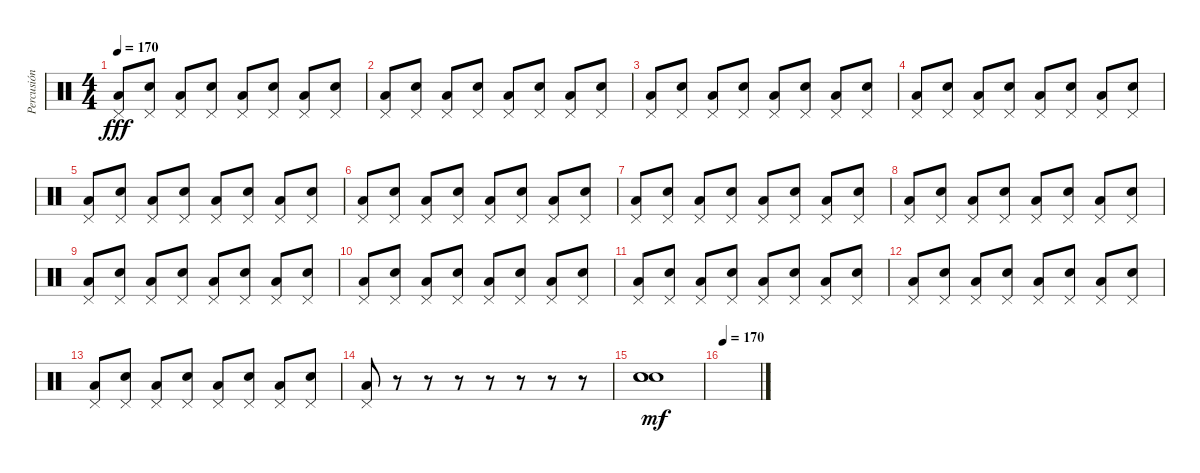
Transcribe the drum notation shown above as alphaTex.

\track ("Percusión" "Percusión") {instrument percussion}
\staff {score}
\articulation defaults
\ts (4 4)
\tempo 170
\clef neutral
\ks c
("Pedal Hi-Hat (hit)" "Low Tom (hit)").8{dy fff} ("Pedal Hi-Hat (hit)" "Electric Snare (hit)").8 ("Pedal Hi-Hat (hit)" "Low Tom (hit)").8 ("Pedal Hi-Hat (hit)" "Electric Snare (hit)").8 ("Pedal Hi-Hat (hit)" "Low Tom (hit)").8 ("Pedal Hi-Hat (hit)" "Electric Snare (hit)").8 ("Pedal Hi-Hat (hit)" "Low Tom (hit)").8 ("Pedal Hi-Hat (hit)" "Electric Snare (hit)").8 |
("Pedal Hi-Hat (hit)" "Low Tom (hit)").8 ("Pedal Hi-Hat (hit)" "Electric Snare (hit)").8 ("Pedal Hi-Hat (hit)" "Low Tom (hit)").8 ("Pedal Hi-Hat (hit)" "Electric Snare (hit)").8 ("Pedal Hi-Hat (hit)" "Low Tom (hit)").8 ("Pedal Hi-Hat (hit)" "Electric Snare (hit)").8 ("Pedal Hi-Hat (hit)" "Low Tom (hit)").8 ("Pedal Hi-Hat (hit)" "Electric Snare (hit)").8 |
("Pedal Hi-Hat (hit)" "Low Tom (hit)").8 ("Pedal Hi-Hat (hit)" "Electric Snare (hit)").8 ("Pedal Hi-Hat (hit)" "Low Tom (hit)").8 ("Pedal Hi-Hat (hit)" "Electric Snare (hit)").8 ("Pedal Hi-Hat (hit)" "Low Tom (hit)").8 ("Pedal Hi-Hat (hit)" "Electric Snare (hit)").8 ("Pedal Hi-Hat (hit)" "Low Tom (hit)").8 ("Pedal Hi-Hat (hit)" "Electric Snare (hit)").8 |
("Pedal Hi-Hat (hit)" "Low Tom (hit)").8 ("Pedal Hi-Hat (hit)" "Electric Snare (hit)").8 ("Pedal Hi-Hat (hit)" "Low Tom (hit)").8 ("Pedal Hi-Hat (hit)" "Electric Snare (hit)").8 ("Pedal Hi-Hat (hit)" "Low Tom (hit)").8 ("Pedal Hi-Hat (hit)" "Electric Snare (hit)").8 ("Pedal Hi-Hat (hit)" "Low Tom (hit)").8 ("Pedal Hi-Hat (hit)" "Electric Snare (hit)").8 |
("Pedal Hi-Hat (hit)" "Low Tom (hit)").8 ("Pedal Hi-Hat (hit)" "Electric Snare (hit)").8 ("Pedal Hi-Hat (hit)" "Low Tom (hit)").8 ("Pedal Hi-Hat (hit)" "Electric Snare (hit)").8 ("Pedal Hi-Hat (hit)" "Low Tom (hit)").8 ("Pedal Hi-Hat (hit)" "Electric Snare (hit)").8 ("Pedal Hi-Hat (hit)" "Low Tom (hit)").8 ("Pedal Hi-Hat (hit)" "Electric Snare (hit)").8 |
("Pedal Hi-Hat (hit)" "Low Tom (hit)").8 ("Pedal Hi-Hat (hit)" "Electric Snare (hit)").8 ("Pedal Hi-Hat (hit)" "Low Tom (hit)").8 ("Pedal Hi-Hat (hit)" "Electric Snare (hit)").8 ("Pedal Hi-Hat (hit)" "Low Tom (hit)").8 ("Pedal Hi-Hat (hit)" "Electric Snare (hit)").8 ("Pedal Hi-Hat (hit)" "Low Tom (hit)").8 ("Pedal Hi-Hat (hit)" "Electric Snare (hit)").8 |
("Pedal Hi-Hat (hit)" "Low Tom (hit)").8 ("Pedal Hi-Hat (hit)" "Electric Snare (hit)").8 ("Pedal Hi-Hat (hit)" "Low Tom (hit)").8 ("Pedal Hi-Hat (hit)" "Electric Snare (hit)").8 ("Pedal Hi-Hat (hit)" "Low Tom (hit)").8 ("Pedal Hi-Hat (hit)" "Electric Snare (hit)").8 ("Pedal Hi-Hat (hit)" "Low Tom (hit)").8 ("Pedal Hi-Hat (hit)" "Electric Snare (hit)").8 |
("Pedal Hi-Hat (hit)" "Low Tom (hit)").8 ("Pedal Hi-Hat (hit)" "Electric Snare (hit)").8 ("Pedal Hi-Hat (hit)" "Low Tom (hit)").8 ("Pedal Hi-Hat (hit)" "Electric Snare (hit)").8 ("Pedal Hi-Hat (hit)" "Low Tom (hit)").8 ("Pedal Hi-Hat (hit)" "Electric Snare (hit)").8 ("Pedal Hi-Hat (hit)" "Low Tom (hit)").8 ("Pedal Hi-Hat (hit)" "Electric Snare (hit)").8 |
("Pedal Hi-Hat (hit)" "Low Tom (hit)").8 ("Pedal Hi-Hat (hit)" "Electric Snare (hit)").8 ("Pedal Hi-Hat (hit)" "Low Tom (hit)").8 ("Pedal Hi-Hat (hit)" "Electric Snare (hit)").8 ("Pedal Hi-Hat (hit)" "Low Tom (hit)").8 ("Pedal Hi-Hat (hit)" "Electric Snare (hit)").8 ("Pedal Hi-Hat (hit)" "Low Tom (hit)").8 ("Pedal Hi-Hat (hit)" "Electric Snare (hit)").8 |
("Pedal Hi-Hat (hit)" "Low Tom (hit)").8 ("Pedal Hi-Hat (hit)" "Electric Snare (hit)").8 ("Pedal Hi-Hat (hit)" "Low Tom (hit)").8 ("Pedal Hi-Hat (hit)" "Electric Snare (hit)").8 ("Pedal Hi-Hat (hit)" "Low Tom (hit)").8 ("Pedal Hi-Hat (hit)" "Electric Snare (hit)").8 ("Pedal Hi-Hat (hit)" "Low Tom (hit)").8 ("Pedal Hi-Hat (hit)" "Electric Snare (hit)").8 |
("Pedal Hi-Hat (hit)" "Low Tom (hit)").8 ("Pedal Hi-Hat (hit)" "Electric Snare (hit)").8 ("Pedal Hi-Hat (hit)" "Low Tom (hit)").8 ("Pedal Hi-Hat (hit)" "Electric Snare (hit)").8 ("Pedal Hi-Hat (hit)" "Low Tom (hit)").8 ("Pedal Hi-Hat (hit)" "Electric Snare (hit)").8 ("Pedal Hi-Hat (hit)" "Low Tom (hit)").8 ("Pedal Hi-Hat (hit)" "Electric Snare (hit)").8 |
("Pedal Hi-Hat (hit)" "Low Tom (hit)").8 ("Pedal Hi-Hat (hit)" "Electric Snare (hit)").8 ("Pedal Hi-Hat (hit)" "Low Tom (hit)").8 ("Pedal Hi-Hat (hit)" "Electric Snare (hit)").8 ("Pedal Hi-Hat (hit)" "Low Tom (hit)").8 ("Pedal Hi-Hat (hit)" "Electric Snare (hit)").8 ("Pedal Hi-Hat (hit)" "Low Tom (hit)").8 ("Pedal Hi-Hat (hit)" "Electric Snare (hit)").8 |
("Pedal Hi-Hat (hit)" "Low Tom (hit)").8 ("Pedal Hi-Hat (hit)" "Electric Snare (hit)").8 ("Pedal Hi-Hat (hit)" "Low Tom (hit)").8 ("Pedal Hi-Hat (hit)" "Electric Snare (hit)").8 ("Pedal Hi-Hat (hit)" "Low Tom (hit)").8 ("Pedal Hi-Hat (hit)" "Electric Snare (hit)").8 ("Pedal Hi-Hat (hit)" "Low Tom (hit)").8 ("Pedal Hi-Hat (hit)" "Electric Snare (hit)").8 |
("Pedal Hi-Hat (hit)" "Low Tom (hit)").8 r.8 r.8 r.8 r.8 r.8 r.8 r.8 |
("Snare (hit) 2" "Snare (hit) 2" "Snare (hit) 2").1{dy mf} |
\tempo 170
